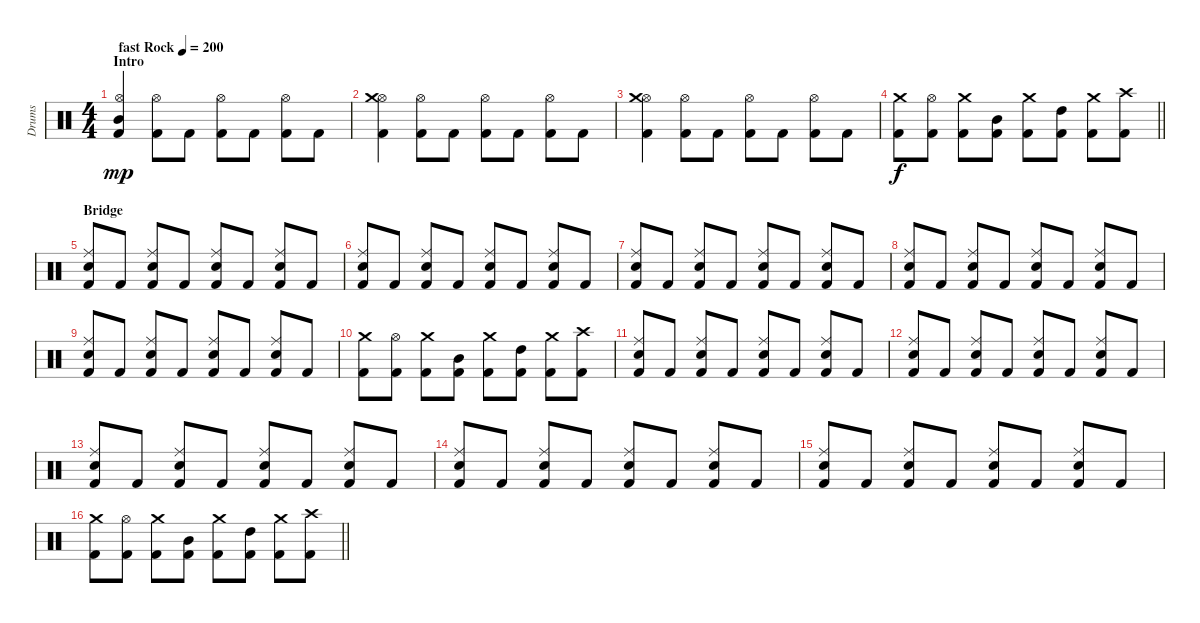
\track ("Drums" "Drums") {instrument percussion}
\staff {score}
\articulation defaults
\ts (4 4)
\section ("" "Intro")
\tempo (200 "fast Rock")
\clef neutral
\ks c
("Kick (hit) 2" "Hi-Hat (open)" "Mid Tom (hit)").4{dy mp} ("Kick (hit) 2" "Hi-Hat (open)").8 "Kick (hit) 2".8 ("Kick (hit) 2" "Hi-Hat (open)").8 "Kick (hit) 2".8 ("Kick (hit) 2" "Hi-Hat (open)").8 "Kick (hit) 2".8 |
("Kick (hit) 2" "Hi-Hat (open)" "Crash medium (hit)").4 ("Kick (hit) 2" "Hi-Hat (open)").8 "Kick (hit) 2".8 ("Kick (hit) 2" "Hi-Hat (open)").8 "Kick (hit) 2".8 ("Kick (hit) 2" "Hi-Hat (open)").8 "Kick (hit) 2".8 |
("Kick (hit) 2" "Hi-Hat (open)" "Crash medium (hit)").4 ("Kick (hit) 2" "Hi-Hat (open)").8 "Kick (hit) 2".8 ("Kick (hit) 2" "Hi-Hat (open)").8 "Kick (hit) 2".8 ("Kick (hit) 2" "Hi-Hat (open)").8 "Kick (hit) 2".8 |
\barLineRight lightlight
("Crash medium (hit)" "Kick (hit) 2").8{dy f} ("Hi-Hat (open)" "Kick (hit) 2").8 ("Crash medium (hit)" "Kick (hit) 2").8 ("Mid Tom (hit)" "Kick (hit) 2").8 ("Crash medium (hit)" "Kick (hit) 2").8 ("High Tom (hit)" "Kick (hit) 2").8 ("Crash medium (hit)" "Kick (hit) 2").8 ("Crash high (hit)" "Kick (hit) 2").8 |
\section ("" "Bridge")
("Ride (middle)" "Snare (hit) 2" "Kick (hit) 2").8 "Kick (hit) 2".8 ("Ride (middle)" "Snare (hit) 2" "Kick (hit) 2").8 "Kick (hit) 2".8 ("Ride (middle)" "Snare (hit) 2" "Kick (hit) 2").8 "Kick (hit) 2".8 ("Ride (middle)" "Snare (hit) 2" "Kick (hit) 2").8 "Kick (hit) 2".8 |
("Ride (middle)" "Snare (hit) 2" "Kick (hit) 2").8 "Kick (hit) 2".8 ("Ride (middle)" "Snare (hit) 2" "Kick (hit) 2").8 "Kick (hit) 2".8 ("Ride (middle)" "Snare (hit) 2" "Kick (hit) 2").8 "Kick (hit) 2".8 ("Ride (middle)" "Snare (hit) 2" "Kick (hit) 2").8 "Kick (hit) 2".8 |
("Ride (middle)" "Snare (hit) 2" "Kick (hit) 2").8 "Kick (hit) 2".8 ("Ride (middle)" "Snare (hit) 2" "Kick (hit) 2").8 "Kick (hit) 2".8 ("Ride (middle)" "Snare (hit) 2" "Kick (hit) 2").8 "Kick (hit) 2".8 ("Ride (middle)" "Snare (hit) 2" "Kick (hit) 2").8 "Kick (hit) 2".8 |
("Ride (middle)" "Snare (hit) 2" "Kick (hit) 2").8 "Kick (hit) 2".8 ("Ride (middle)" "Snare (hit) 2" "Kick (hit) 2").8 "Kick (hit) 2".8 ("Ride (middle)" "Snare (hit) 2" "Kick (hit) 2").8 "Kick (hit) 2".8 ("Ride (middle)" "Snare (hit) 2" "Kick (hit) 2").8 "Kick (hit) 2".8 |
("Ride (middle)" "Snare (hit) 2" "Kick (hit) 2").8 "Kick (hit) 2".8 ("Ride (middle)" "Snare (hit) 2" "Kick (hit) 2").8 "Kick (hit) 2".8 ("Ride (middle)" "Snare (hit) 2" "Kick (hit) 2").8 "Kick (hit) 2".8 ("Ride (middle)" "Snare (hit) 2" "Kick (hit) 2").8 "Kick (hit) 2".8 |
("Crash medium (hit)" "Kick (hit) 2").8 ("Hi-Hat (open)" "Kick (hit) 2").8 ("Crash medium (hit)" "Kick (hit) 2").8 ("Mid Tom (hit)" "Kick (hit) 2").8 ("Crash medium (hit)" "Kick (hit) 2").8 ("High Tom (hit)" "Kick (hit) 2").8 ("Crash medium (hit)" "Kick (hit) 2").8 ("Crash high (hit)" "Kick (hit) 2").8 |
("Ride (middle)" "Snare (hit) 2" "Kick (hit) 2").8 "Kick (hit) 2".8 ("Ride (middle)" "Snare (hit) 2" "Kick (hit) 2").8 "Kick (hit) 2".8 ("Ride (middle)" "Snare (hit) 2" "Kick (hit) 2").8 "Kick (hit) 2".8 ("Ride (middle)" "Snare (hit) 2" "Kick (hit) 2").8 "Kick (hit) 2".8 |
("Ride (middle)" "Snare (hit) 2" "Kick (hit) 2").8 "Kick (hit) 2".8 ("Ride (middle)" "Snare (hit) 2" "Kick (hit) 2").8 "Kick (hit) 2".8 ("Ride (middle)" "Snare (hit) 2" "Kick (hit) 2").8 "Kick (hit) 2".8 ("Ride (middle)" "Snare (hit) 2" "Kick (hit) 2").8 "Kick (hit) 2".8 |
("Ride (middle)" "Snare (hit) 2" "Kick (hit) 2").8 "Kick (hit) 2".8 ("Ride (middle)" "Snare (hit) 2" "Kick (hit) 2").8 "Kick (hit) 2".8 ("Ride (middle)" "Snare (hit) 2" "Kick (hit) 2").8 "Kick (hit) 2".8 ("Ride (middle)" "Snare (hit) 2" "Kick (hit) 2").8 "Kick (hit) 2".8 |
("Ride (middle)" "Snare (hit) 2" "Kick (hit) 2").8 "Kick (hit) 2".8 ("Ride (middle)" "Snare (hit) 2" "Kick (hit) 2").8 "Kick (hit) 2".8 ("Ride (middle)" "Snare (hit) 2" "Kick (hit) 2").8 "Kick (hit) 2".8 ("Ride (middle)" "Snare (hit) 2" "Kick (hit) 2").8 "Kick (hit) 2".8 |
("Ride (middle)" "Snare (hit) 2" "Kick (hit) 2").8 "Kick (hit) 2".8 ("Ride (middle)" "Snare (hit) 2" "Kick (hit) 2").8 "Kick (hit) 2".8 ("Ride (middle)" "Snare (hit) 2" "Kick (hit) 2").8 "Kick (hit) 2".8 ("Ride (middle)" "Snare (hit) 2" "Kick (hit) 2").8 "Kick (hit) 2".8 |
\barLineRight lightlight
("Crash medium (hit)" "Kick (hit) 2").8 ("Hi-Hat (open)" "Kick (hit) 2").8 ("Crash medium (hit)" "Kick (hit) 2").8 ("Mid Tom (hit)" "Kick (hit) 2").8 ("Crash medium (hit)" "Kick (hit) 2").8 ("High Tom (hit)" "Kick (hit) 2").8 ("Crash medium (hit)" "Kick (hit) 2").8 ("Crash high (hit)" "Kick (hit) 2").8
